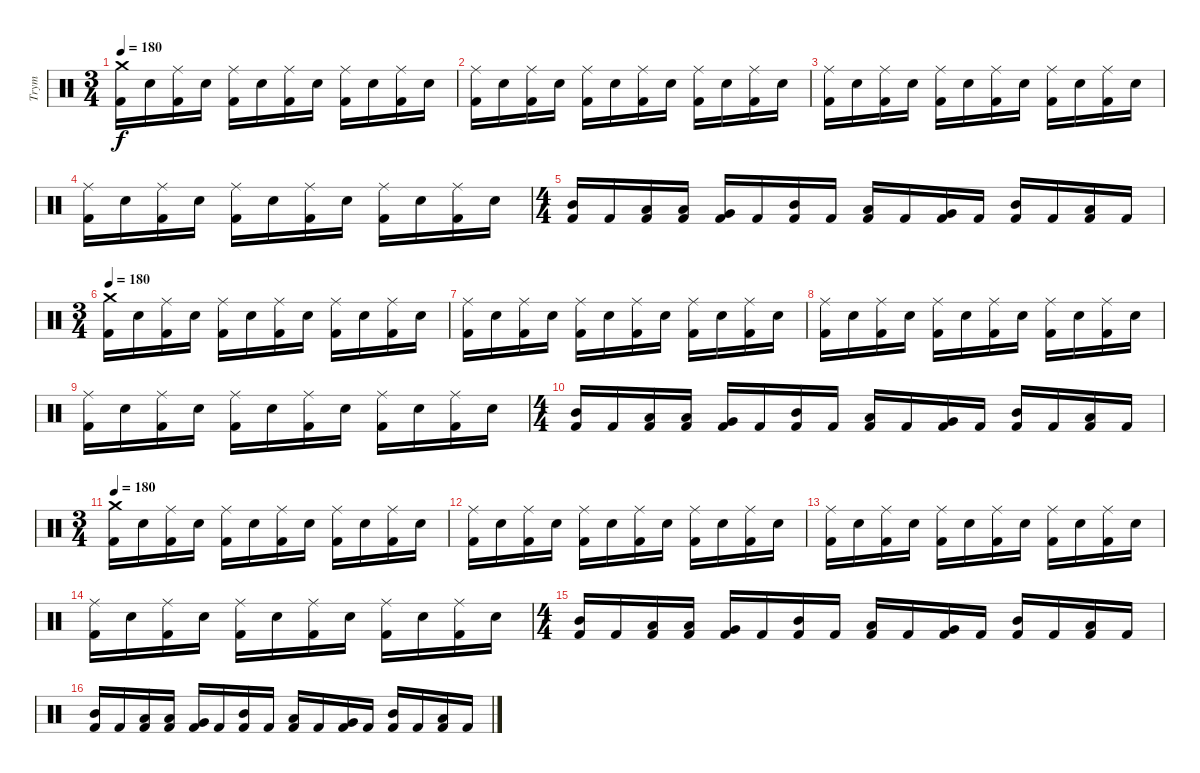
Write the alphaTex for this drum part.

\track ("Trym" "Trym") {instrument percussion}
\staff {score}
\articulation defaults
\ts (3 4)
\tempo 180
\clef neutral
\ks c
("Kick (hit) 2" "Crash medium (hit)").16{dy f} "Electric Snare (hit)".16 ("Kick (hit) 2" "Ride (middle)").16 "Electric Snare (hit)".16 ("Kick (hit) 2" "Ride (middle)").16 "Electric Snare (hit)".16 ("Kick (hit) 2" "Ride (middle)").16 "Electric Snare (hit)".16 ("Kick (hit) 2" "Ride (middle)").16 "Electric Snare (hit)".16 ("Kick (hit) 2" "Ride (middle)").16 "Electric Snare (hit)".16 |
("Kick (hit) 2" "Ride (middle)").16 "Electric Snare (hit)".16 ("Kick (hit) 2" "Ride (middle)").16 "Electric Snare (hit)".16 ("Kick (hit) 2" "Ride (middle)").16 "Electric Snare (hit)".16 ("Kick (hit) 2" "Ride (middle)").16 "Electric Snare (hit)".16 ("Kick (hit) 2" "Ride (middle)").16 "Electric Snare (hit)".16 ("Kick (hit) 2" "Ride (middle)").16 "Electric Snare (hit)".16 |
("Kick (hit) 2" "Ride (middle)").16 "Electric Snare (hit)".16 ("Kick (hit) 2" "Ride (middle)").16 "Electric Snare (hit)".16 ("Kick (hit) 2" "Ride (middle)").16 "Electric Snare (hit)".16 ("Kick (hit) 2" "Ride (middle)").16 "Electric Snare (hit)".16 ("Kick (hit) 2" "Ride (middle)").16 "Electric Snare (hit)".16 ("Kick (hit) 2" "Ride (middle)").16 "Electric Snare (hit)".16 |
("Kick (hit) 2" "Ride (middle)").16 "Electric Snare (hit)".16 ("Kick (hit) 2" "Ride (middle)").16 "Electric Snare (hit)".16 ("Kick (hit) 2" "Ride (middle)").16 "Electric Snare (hit)".16 ("Kick (hit) 2" "Ride (middle)").16 "Electric Snare (hit)".16 ("Kick (hit) 2" "Ride (middle)").16 "Electric Snare (hit)".16 ("Kick (hit) 2" "Ride (middle)").16 "Electric Snare (hit)".16 |
\ts (4 4)
("Kick (hit) 2" "Mid Tom (hit)").16 "Kick (hit) 2".16 ("Kick (hit) 2" "Low Tom (hit)").16 ("Kick (hit) 2" "Low Tom (hit)").16 ("Kick (hit) 2" "Very Low Tom (hit)").16 "Kick (hit) 2".16 ("Kick (hit) 2" "Mid Tom (hit)").16 "Kick (hit) 2".16 ("Kick (hit) 2" "Low Tom (hit)").16 "Kick (hit) 2".16 ("Kick (hit) 2" "Very Low Tom (hit)").16 "Kick (hit) 2".16 ("Kick (hit) 2" "Mid Tom (hit)").16 "Kick (hit) 2".16 ("Kick (hit) 2" "Low Tom (hit)").16 "Kick (hit) 2".16 |
\ts (3 4)
\tempo 180
("Kick (hit) 2" "Crash medium (hit)").16 "Electric Snare (hit)".16 ("Kick (hit) 2" "Ride (middle)").16 "Electric Snare (hit)".16 ("Kick (hit) 2" "Ride (middle)").16 "Electric Snare (hit)".16 ("Kick (hit) 2" "Ride (middle)").16 "Electric Snare (hit)".16 ("Kick (hit) 2" "Ride (middle)").16 "Electric Snare (hit)".16 ("Kick (hit) 2" "Ride (middle)").16 "Electric Snare (hit)".16 |
("Kick (hit) 2" "Ride (middle)").16 "Electric Snare (hit)".16 ("Kick (hit) 2" "Ride (middle)").16 "Electric Snare (hit)".16 ("Kick (hit) 2" "Ride (middle)").16 "Electric Snare (hit)".16 ("Kick (hit) 2" "Ride (middle)").16 "Electric Snare (hit)".16 ("Kick (hit) 2" "Ride (middle)").16 "Electric Snare (hit)".16 ("Kick (hit) 2" "Ride (middle)").16 "Electric Snare (hit)".16 |
("Kick (hit) 2" "Ride (middle)").16 "Electric Snare (hit)".16 ("Kick (hit) 2" "Ride (middle)").16 "Electric Snare (hit)".16 ("Kick (hit) 2" "Ride (middle)").16 "Electric Snare (hit)".16 ("Kick (hit) 2" "Ride (middle)").16 "Electric Snare (hit)".16 ("Kick (hit) 2" "Ride (middle)").16 "Electric Snare (hit)".16 ("Kick (hit) 2" "Ride (middle)").16 "Electric Snare (hit)".16 |
("Kick (hit) 2" "Ride (middle)").16 "Electric Snare (hit)".16 ("Kick (hit) 2" "Ride (middle)").16 "Electric Snare (hit)".16 ("Kick (hit) 2" "Ride (middle)").16 "Electric Snare (hit)".16 ("Kick (hit) 2" "Ride (middle)").16 "Electric Snare (hit)".16 ("Kick (hit) 2" "Ride (middle)").16 "Electric Snare (hit)".16 ("Kick (hit) 2" "Ride (middle)").16 "Electric Snare (hit)".16 |
\ts (4 4)
("Kick (hit) 2" "Mid Tom (hit)").16 "Kick (hit) 2".16 ("Kick (hit) 2" "Low Tom (hit)").16 ("Kick (hit) 2" "Low Tom (hit)").16 ("Kick (hit) 2" "Very Low Tom (hit)").16 "Kick (hit) 2".16 ("Kick (hit) 2" "Mid Tom (hit)").16 "Kick (hit) 2".16 ("Kick (hit) 2" "Low Tom (hit)").16 "Kick (hit) 2".16 ("Kick (hit) 2" "Very Low Tom (hit)").16 "Kick (hit) 2".16 ("Kick (hit) 2" "Mid Tom (hit)").16 "Kick (hit) 2".16 ("Kick (hit) 2" "Low Tom (hit)").16 "Kick (hit) 2".16 |
\ts (3 4)
\tempo 180
("Kick (hit) 2" "Crash medium (hit)").16 "Electric Snare (hit)".16 ("Kick (hit) 2" "Ride (middle)").16 "Electric Snare (hit)".16 ("Kick (hit) 2" "Ride (middle)").16 "Electric Snare (hit)".16 ("Kick (hit) 2" "Ride (middle)").16 "Electric Snare (hit)".16 ("Kick (hit) 2" "Ride (middle)").16 "Electric Snare (hit)".16 ("Kick (hit) 2" "Ride (middle)").16 "Electric Snare (hit)".16 |
("Kick (hit) 2" "Ride (middle)").16 "Electric Snare (hit)".16 ("Kick (hit) 2" "Ride (middle)").16 "Electric Snare (hit)".16 ("Kick (hit) 2" "Ride (middle)").16 "Electric Snare (hit)".16 ("Kick (hit) 2" "Ride (middle)").16 "Electric Snare (hit)".16 ("Kick (hit) 2" "Ride (middle)").16 "Electric Snare (hit)".16 ("Kick (hit) 2" "Ride (middle)").16 "Electric Snare (hit)".16 |
("Kick (hit) 2" "Ride (middle)").16 "Electric Snare (hit)".16 ("Kick (hit) 2" "Ride (middle)").16 "Electric Snare (hit)".16 ("Kick (hit) 2" "Ride (middle)").16 "Electric Snare (hit)".16 ("Kick (hit) 2" "Ride (middle)").16 "Electric Snare (hit)".16 ("Kick (hit) 2" "Ride (middle)").16 "Electric Snare (hit)".16 ("Kick (hit) 2" "Ride (middle)").16 "Electric Snare (hit)".16 |
("Kick (hit) 2" "Ride (middle)").16 "Electric Snare (hit)".16 ("Kick (hit) 2" "Ride (middle)").16 "Electric Snare (hit)".16 ("Kick (hit) 2" "Ride (middle)").16 "Electric Snare (hit)".16 ("Kick (hit) 2" "Ride (middle)").16 "Electric Snare (hit)".16 ("Kick (hit) 2" "Ride (middle)").16 "Electric Snare (hit)".16 ("Kick (hit) 2" "Ride (middle)").16 "Electric Snare (hit)".16 |
\ts (4 4)
("Kick (hit) 2" "Mid Tom (hit)").16 "Kick (hit) 2".16 ("Kick (hit) 2" "Low Tom (hit)").16 ("Kick (hit) 2" "Low Tom (hit)").16 ("Kick (hit) 2" "Very Low Tom (hit)").16 "Kick (hit) 2".16 ("Kick (hit) 2" "Mid Tom (hit)").16 "Kick (hit) 2".16 ("Kick (hit) 2" "Low Tom (hit)").16 "Kick (hit) 2".16 ("Kick (hit) 2" "Very Low Tom (hit)").16 "Kick (hit) 2".16 ("Kick (hit) 2" "Mid Tom (hit)").16 "Kick (hit) 2".16 ("Kick (hit) 2" "Low Tom (hit)").16 "Kick (hit) 2".16 |
("Kick (hit) 2" "Mid Tom (hit)").16 "Kick (hit) 2".16 ("Kick (hit) 2" "Low Tom (hit)").16 ("Kick (hit) 2" "Low Tom (hit)").16 ("Kick (hit) 2" "Very Low Tom (hit)").16 "Kick (hit) 2".16 ("Kick (hit) 2" "Mid Tom (hit)").16 "Kick (hit) 2".16 ("Kick (hit) 2" "Low Tom (hit)").16 "Kick (hit) 2".16 ("Kick (hit) 2" "Very Low Tom (hit)").16 "Kick (hit) 2".16 ("Kick (hit) 2" "Mid Tom (hit)").16 "Kick (hit) 2".16 ("Kick (hit) 2" "Low Tom (hit)").16 "Kick (hit) 2".16
